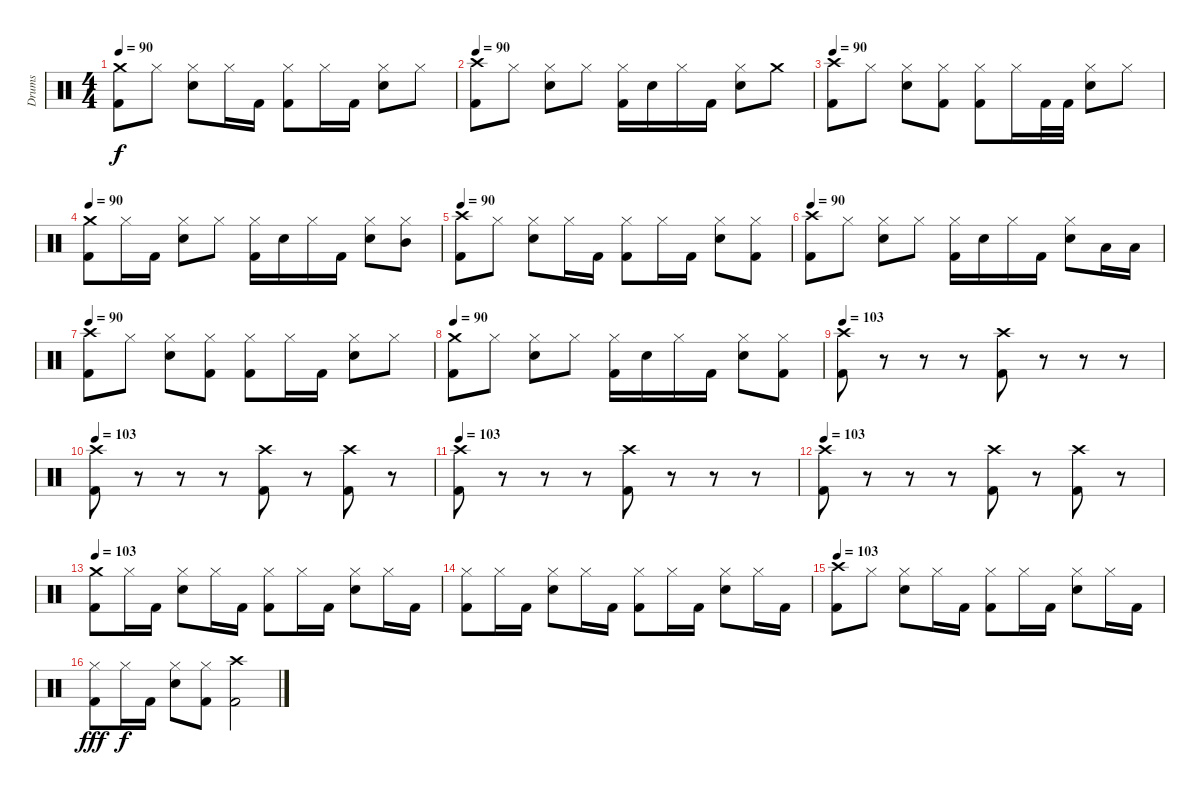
\track ("Drums" "Drums") {instrument percussion}
\staff {score}
\articulation defaults
\ts (4 4)
\tempo 90
\clef neutral
\ks c
("Crash medium (hit)" "Kick (hit) 2").8{dy f} "Hi-Hat (closed)".8 ("Hi-Hat (closed)" "Electric Snare (hit)").8 "Hi-Hat (closed)".16 "Kick (hit) 2".16 ("Hi-Hat (closed)" "Kick (hit) 2").8 "Hi-Hat (closed)".16 "Kick (hit) 2".16 ("Hi-Hat (closed)" "Electric Snare (hit)").8 "Hi-Hat (closed)".8 |
\tempo 90
("Crash high (hit)" "Kick (hit) 2").8 "Hi-Hat (closed)".8 ("Hi-Hat (closed)" "Electric Snare (hit)").8 "Hi-Hat (closed)".8 ("Hi-Hat (closed)" "Kick (hit) 2").16 "Electric Snare (hit)".16 "Hi-Hat (closed)".16 "Kick (hit) 2".16 ("Hi-Hat (closed)" "Electric Snare (hit)").8 "Crash medium (hit)".8 |
\tempo 90
("Crash high (hit)" "Kick (hit) 2").8 "Hi-Hat (closed)".8 ("Hi-Hat (closed)" "Electric Snare (hit)").8 ("Hi-Hat (closed)" "Kick (hit) 2").8 ("Hi-Hat (closed)" "Kick (hit) 2").8 "Hi-Hat (closed)".16 "Kick (hit) 2".32 "Kick (hit) 2".32 ("Hi-Hat (closed)" "Electric Snare (hit)").8 "Hi-Hat (closed)".8 |
\tempo 90
("Crash medium (hit)" "Kick (hit) 2").8 "Hi-Hat (closed)".16 "Kick (hit) 2".16 ("Hi-Hat (closed)" "Electric Snare (hit)").8 "Hi-Hat (closed)".8 ("Hi-Hat (closed)" "Kick (hit) 2").16 "Electric Snare (hit)".16 "Hi-Hat (closed)".16 "Kick (hit) 2".16 ("Hi-Hat (closed)" "Electric Snare (hit)").8 ("Hi-Hat (closed)" "Mid Tom (hit)").8 |
\tempo 90
("Crash high (hit)" "Kick (hit) 2").8 "Hi-Hat (closed)".8 ("Hi-Hat (closed)" "Electric Snare (hit)").8 "Hi-Hat (closed)".16 "Kick (hit) 2".16 ("Hi-Hat (closed)" "Kick (hit) 2").8 "Hi-Hat (closed)".16 "Kick (hit) 2".16 ("Hi-Hat (closed)" "Electric Snare (hit)").8 ("Hi-Hat (closed)" "Kick (hit) 2").8 |
\tempo 90
("Crash high (hit)" "Kick (hit) 2").8 "Hi-Hat (closed)".8 ("Hi-Hat (closed)" "Electric Snare (hit)").8 "Hi-Hat (closed)".8 ("Hi-Hat (closed)" "Kick (hit) 2").16 "Electric Snare (hit)".16 "Hi-Hat (closed)".16 "Kick (hit) 2".16 ("Hi-Hat (closed)" "Electric Snare (hit)").8 "Low Tom (hit)".16 "Low Tom (hit)".16 |
\tempo 90
("Crash high (hit)" "Kick (hit) 2").8 "Hi-Hat (closed)".8 ("Hi-Hat (closed)" "Electric Snare (hit)").8 ("Hi-Hat (closed)" "Kick (hit) 2").8 ("Hi-Hat (closed)" "Kick (hit) 2").8 "Hi-Hat (closed)".16 "Kick (hit) 2".16 ("Hi-Hat (closed)" "Electric Snare (hit)").8 "Hi-Hat (closed)".8 |
\tempo 90
("Crash medium (hit)" "Kick (hit) 2").8 "Hi-Hat (closed)".8 ("Hi-Hat (closed)" "Electric Snare (hit)").8 "Hi-Hat (closed)".8 ("Hi-Hat (closed)" "Kick (hit) 2").16 "Electric Snare (hit)".16 "Hi-Hat (closed)".16 "Kick (hit) 2".16 ("Hi-Hat (closed)" "Electric Snare (hit)").8 ("Hi-Hat (closed)" "Kick (hit) 2").8 |
\tempo 103
("Crash high (hit)" "Kick (hit) 2").8 r.8 r.8 r.8 ("Crash high (hit)" "Kick (hit) 2").8 r.8 r.8 r.8 |
\tempo 103
("Crash high (hit)" "Kick (hit) 2").8 r.8 r.8 r.8 ("Crash high (hit)" "Kick (hit) 2").8 r.8 ("Crash high (hit)" "Kick (hit) 2").8 r.8 |
\tempo 103
("Crash high (hit)" "Kick (hit) 2").8 r.8 r.8 r.8 ("Crash high (hit)" "Kick (hit) 2").8 r.8 r.8 r.8 |
\tempo 103
("Crash high (hit)" "Kick (hit) 2").8 r.8 r.8 r.8 ("Crash high (hit)" "Kick (hit) 2").8 r.8 ("Crash high (hit)" "Kick (hit) 2").8 r.8 |
\tempo 103
("Crash medium (hit)" "Kick (hit) 2").8 "Hi-Hat (closed)".16 "Kick (hit) 2".16 ("Hi-Hat (closed)" "Electric Snare (hit)").8 "Hi-Hat (closed)".16 "Kick (hit) 2".16 ("Hi-Hat (closed)" "Kick (hit) 2").8 "Hi-Hat (closed)".16 "Kick (hit) 2".16 ("Hi-Hat (closed)" "Electric Snare (hit)").8 "Hi-Hat (closed)".16 "Kick (hit) 2".16 |
("Hi-Hat (closed)" "Kick (hit) 2").8 "Hi-Hat (closed)".16 "Kick (hit) 2".16 ("Hi-Hat (closed)" "Electric Snare (hit)").8 "Hi-Hat (closed)".16 "Kick (hit) 2".16 ("Hi-Hat (closed)" "Kick (hit) 2").8 "Hi-Hat (closed)".16 "Kick (hit) 2".16 ("Hi-Hat (closed)" "Electric Snare (hit)").8 "Hi-Hat (closed)".16 "Kick (hit) 2".16 |
\tempo 103
("Crash high (hit)" "Kick (hit) 2").8 "Hi-Hat (closed)".8 ("Hi-Hat (closed)" "Electric Snare (hit)").8 "Hi-Hat (closed)".16 "Kick (hit) 2".16 ("Hi-Hat (closed)" "Kick (hit) 2").8 "Hi-Hat (closed)".16 "Kick (hit) 2".16 ("Hi-Hat (closed)" "Electric Snare (hit)").8 "Hi-Hat (closed)".16 "Kick (hit) 2".16 |
("Hi-Hat (closed)" "Kick (hit) 2").8{dy fff} "Hi-Hat (closed)".16{dy f} "Kick (hit) 2".16 ("Hi-Hat (closed)" "Electric Snare (hit)").8 ("Hi-Hat (closed)" "Kick (hit) 2").8 ("Crash high (hit)" "Kick (hit) 2").2
